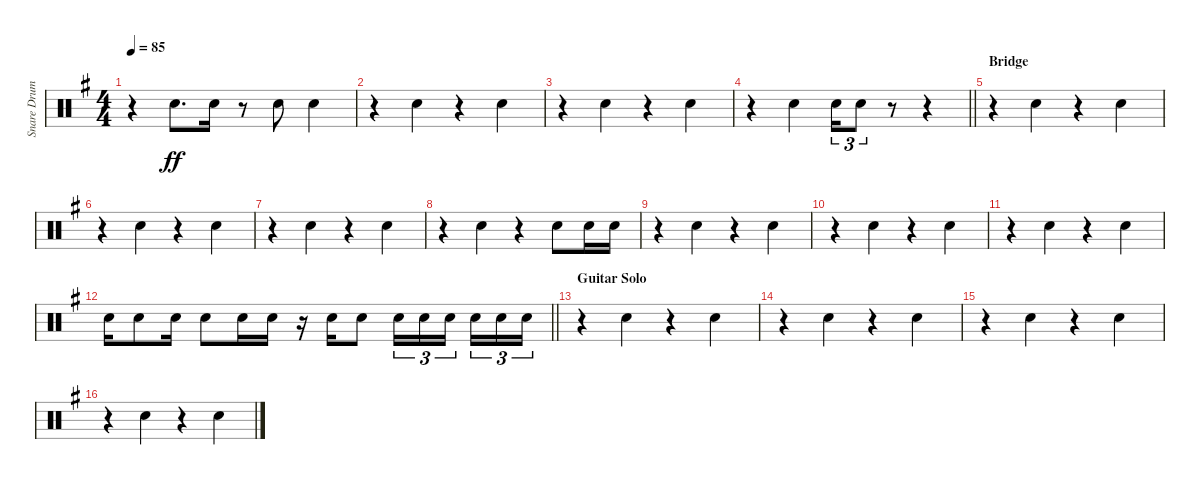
\track ("Snare Drum" "Snare Drum") {instrument percussion}
\staff {score}
\articulation defaults
\ts (4 4)
\tempo 85
\clef neutral
\ks g
r.4{dy ff} "Electric Snare (hit)".8{d} "Electric Snare (hit)".16 r.8 "Electric Snare (hit)".8 "Electric Snare (hit)".4 |
r.4{beam merge} "Electric Snare (hit)".4 r.4{beam merge} "Electric Snare (hit)".4 |
r.4{beam merge} "Electric Snare (hit)".4 r.4{beam merge} "Electric Snare (hit)".4 |
\barLineRight lightlight
r.4{beam merge} "Electric Snare (hit)".4 "Electric Snare (hit)".16{tu (3 2)} "Electric Snare (hit)".8{tu (3 2)} r.8 r.4 |
\section ("" "Bridge")
r.4{beam merge} "Electric Snare (hit)".4 r.4{beam merge} "Electric Snare (hit)".4 |
r.4{beam merge} "Electric Snare (hit)".4 r.4{beam merge} "Electric Snare (hit)".4 |
r.4{beam merge} "Electric Snare (hit)".4 r.4{beam merge} "Electric Snare (hit)".4 |
r.4{beam merge} "Electric Snare (hit)".4 r.4 "Electric Snare (hit)".8 "Electric Snare (hit)".16 "Electric Snare (hit)".16 |
r.4{beam merge} "Electric Snare (hit)".4 r.4{beam merge} "Electric Snare (hit)".4 |
r.4{beam merge} "Electric Snare (hit)".4 r.4{beam merge} "Electric Snare (hit)".4 |
r.4{beam merge} "Electric Snare (hit)".4 r.4{beam merge} "Electric Snare (hit)".4 |
\barLineRight lightlight "Electric Snare (hit)".16 "Electric Snare (hit)".8 "Electric Snare (hit)".16 "Electric Snare (hit)".8 "Electric Snare (hit)".16 "Electric Snare (hit)".16
r.16 "Electric Snare (hit)".16 "Electric Snare (hit)".8 "Electric Snare (hit)".16{tu (3 2)} "Electric Snare (hit)".16{tu (3 2)} "Electric Snare (hit)".16{tu (3 2) beam splitsecondary} "Electric Snare (hit)".16{tu (3 2)} "Electric Snare (hit)".16{tu (3 2)} "Electric Snare (hit)".16{tu (3 2)} |
\section ("" "Guitar Solo")
r.4{beam merge} "Electric Snare (hit)".4 r.4{beam merge} "Electric Snare (hit)".4 |
r.4{beam merge} "Electric Snare (hit)".4 r.4{beam merge} "Electric Snare (hit)".4 |
r.4{beam merge} "Electric Snare (hit)".4 r.4{beam merge} "Electric Snare (hit)".4 |
r.4{beam merge} "Electric Snare (hit)".4 r.4{beam merge} "Electric Snare (hit)".4
